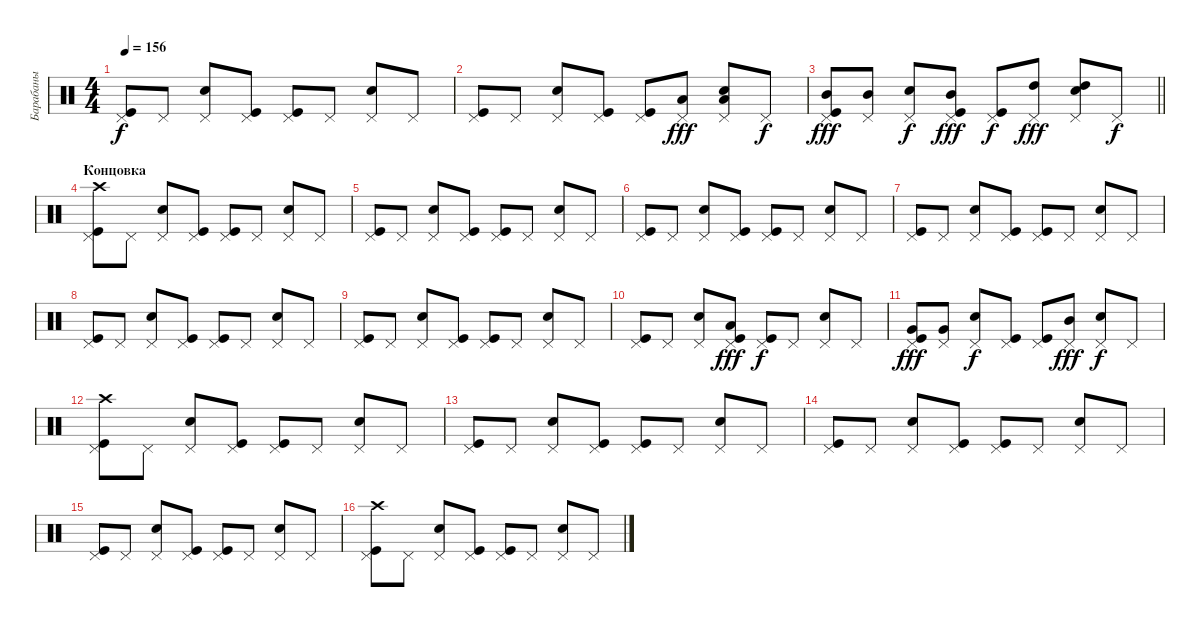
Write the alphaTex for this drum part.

\track ("Барабаны" "Барабаны") {instrument percussion}
\staff {score}
\articulation defaults
\ts (4 4)
\tempo 156
\clef neutral
\ks c
("Kick (hit)" "Pedal Hi-Hat (hit)").8{dy f} "Pedal Hi-Hat (hit)".8 ("Snare (hit) 2" "Pedal Hi-Hat (hit)").8 ("Kick (hit)" "Pedal Hi-Hat (hit)").8 ("Kick (hit)" "Pedal Hi-Hat (hit)").8 "Pedal Hi-Hat (hit)".8 ("Snare (hit) 2" "Pedal Hi-Hat (hit)").8 "Pedal Hi-Hat (hit)".8 |
("Kick (hit)" "Pedal Hi-Hat (hit)").8 "Pedal Hi-Hat (hit)".8 ("Snare (hit) 2" "Pedal Hi-Hat (hit)").8 ("Kick (hit)" "Pedal Hi-Hat (hit)").8 ("Kick (hit)" "Pedal Hi-Hat (hit)").8 ("Pedal Hi-Hat (hit)" "Low Tom (hit)").8{dy fff} ("Snare (hit) 2" "Pedal Hi-Hat (hit)" "Low Tom (hit)").8 "Pedal Hi-Hat (hit)".8{dy f} |
\barLineRight lightlight
("Kick (hit)" "Pedal Hi-Hat (hit)" "Mid Tom (hit)").8{dy fff} ("Pedal Hi-Hat (hit)" "Mid Tom (hit)").8 ("Snare (hit) 2" "Pedal Hi-Hat (hit)").8{dy f} ("Kick (hit)" "Pedal Hi-Hat (hit)" "Mid Tom (hit)").8{dy fff} ("Kick (hit)" "Pedal Hi-Hat (hit)").8{dy f} ("Pedal Hi-Hat (hit)" "High Tom (hit)").8{dy fff} ("Snare (hit) 2" "Pedal Hi-Hat (hit)" "High Tom (hit)").8 "Pedal Hi-Hat (hit)".8{dy f} |
\section ("" "Концовка")
("Kick (hit)" "Pedal Hi-Hat (hit)" "Crash high (hit)").8 "Pedal Hi-Hat (hit)".8 ("Snare (hit) 2" "Pedal Hi-Hat (hit)").8 ("Kick (hit)" "Pedal Hi-Hat (hit)").8 ("Kick (hit)" "Pedal Hi-Hat (hit)").8 "Pedal Hi-Hat (hit)".8 ("Snare (hit) 2" "Pedal Hi-Hat (hit)").8 "Pedal Hi-Hat (hit)".8 |
("Kick (hit)" "Pedal Hi-Hat (hit)").8 "Pedal Hi-Hat (hit)".8 ("Snare (hit) 2" "Pedal Hi-Hat (hit)").8 ("Kick (hit)" "Pedal Hi-Hat (hit)").8 ("Kick (hit)" "Pedal Hi-Hat (hit)").8 "Pedal Hi-Hat (hit)".8 ("Snare (hit) 2" "Pedal Hi-Hat (hit)").8 "Pedal Hi-Hat (hit)".8 |
("Kick (hit)" "Pedal Hi-Hat (hit)").8 "Pedal Hi-Hat (hit)".8 ("Snare (hit) 2" "Pedal Hi-Hat (hit)").8 ("Kick (hit)" "Pedal Hi-Hat (hit)").8 ("Kick (hit)" "Pedal Hi-Hat (hit)").8 "Pedal Hi-Hat (hit)".8 ("Snare (hit) 2" "Pedal Hi-Hat (hit)").8 "Pedal Hi-Hat (hit)".8 |
("Kick (hit)" "Pedal Hi-Hat (hit)").8 "Pedal Hi-Hat (hit)".8 ("Snare (hit) 2" "Pedal Hi-Hat (hit)").8 ("Kick (hit)" "Pedal Hi-Hat (hit)").8 ("Kick (hit)" "Pedal Hi-Hat (hit)").8 "Pedal Hi-Hat (hit)".8 ("Snare (hit) 2" "Pedal Hi-Hat (hit)").8 "Pedal Hi-Hat (hit)".8 |
("Kick (hit)" "Pedal Hi-Hat (hit)").8 "Pedal Hi-Hat (hit)".8 ("Snare (hit) 2" "Pedal Hi-Hat (hit)").8 ("Kick (hit)" "Pedal Hi-Hat (hit)").8 ("Kick (hit)" "Pedal Hi-Hat (hit)").8 "Pedal Hi-Hat (hit)".8 ("Snare (hit) 2" "Pedal Hi-Hat (hit)").8 "Pedal Hi-Hat (hit)".8 |
("Kick (hit)" "Pedal Hi-Hat (hit)").8 "Pedal Hi-Hat (hit)".8 ("Snare (hit) 2" "Pedal Hi-Hat (hit)").8 ("Kick (hit)" "Pedal Hi-Hat (hit)").8 ("Kick (hit)" "Pedal Hi-Hat (hit)").8 "Pedal Hi-Hat (hit)".8 ("Snare (hit) 2" "Pedal Hi-Hat (hit)").8 "Pedal Hi-Hat (hit)".8 |
("Kick (hit)" "Pedal Hi-Hat (hit)").8 "Pedal Hi-Hat (hit)".8 ("Snare (hit) 2" "Pedal Hi-Hat (hit)").8 ("Kick (hit)" "Pedal Hi-Hat (hit)" "Low Tom (hit)").8{dy fff} ("Kick (hit)" "Pedal Hi-Hat (hit)").8{dy f} "Pedal Hi-Hat (hit)".8 ("Snare (hit) 2" "Pedal Hi-Hat (hit)").8 "Pedal Hi-Hat (hit)".8 |
("Kick (hit)" "Pedal Hi-Hat (hit)" "Very Low Tom (hit)").8{dy fff} ("Pedal Hi-Hat (hit)" "Very Low Tom (hit)").8 ("Snare (hit) 2" "Pedal Hi-Hat (hit)").8{dy f} ("Kick (hit)" "Pedal Hi-Hat (hit)").8 ("Kick (hit)" "Pedal Hi-Hat (hit)").8 ("Pedal Hi-Hat (hit)" "Mid Tom (hit)").8{dy fff} ("Snare (hit) 2" "Pedal Hi-Hat (hit)").8{dy f} "Pedal Hi-Hat (hit)".8 |
("Kick (hit)" "Pedal Hi-Hat (hit)" "Crash high (hit)").8 "Pedal Hi-Hat (hit)".8 ("Snare (hit) 2" "Pedal Hi-Hat (hit)").8 ("Kick (hit)" "Pedal Hi-Hat (hit)").8 ("Kick (hit)" "Pedal Hi-Hat (hit)").8 "Pedal Hi-Hat (hit)".8 ("Snare (hit) 2" "Pedal Hi-Hat (hit)").8 "Pedal Hi-Hat (hit)".8 |
("Kick (hit)" "Pedal Hi-Hat (hit)").8 "Pedal Hi-Hat (hit)".8 ("Snare (hit) 2" "Pedal Hi-Hat (hit)").8 ("Kick (hit)" "Pedal Hi-Hat (hit)").8 ("Kick (hit)" "Pedal Hi-Hat (hit)").8 "Pedal Hi-Hat (hit)".8 ("Snare (hit) 2" "Pedal Hi-Hat (hit)").8 "Pedal Hi-Hat (hit)".8 |
("Kick (hit)" "Pedal Hi-Hat (hit)").8 "Pedal Hi-Hat (hit)".8 ("Snare (hit) 2" "Pedal Hi-Hat (hit)").8 ("Kick (hit)" "Pedal Hi-Hat (hit)").8 ("Kick (hit)" "Pedal Hi-Hat (hit)").8 "Pedal Hi-Hat (hit)".8 ("Snare (hit) 2" "Pedal Hi-Hat (hit)").8 "Pedal Hi-Hat (hit)".8 |
("Kick (hit)" "Pedal Hi-Hat (hit)").8 "Pedal Hi-Hat (hit)".8 ("Snare (hit) 2" "Pedal Hi-Hat (hit)").8 ("Kick (hit)" "Pedal Hi-Hat (hit)").8 ("Kick (hit)" "Pedal Hi-Hat (hit)").8 "Pedal Hi-Hat (hit)".8 ("Snare (hit) 2" "Pedal Hi-Hat (hit)").8 "Pedal Hi-Hat (hit)".8 |
("Kick (hit)" "Pedal Hi-Hat (hit)" "Crash high (hit)").8 "Pedal Hi-Hat (hit)".8 ("Snare (hit) 2" "Pedal Hi-Hat (hit)").8 ("Kick (hit)" "Pedal Hi-Hat (hit)").8 ("Kick (hit)" "Pedal Hi-Hat (hit)").8 "Pedal Hi-Hat (hit)".8 ("Snare (hit) 2" "Pedal Hi-Hat (hit)").8 "Pedal Hi-Hat (hit)".8
